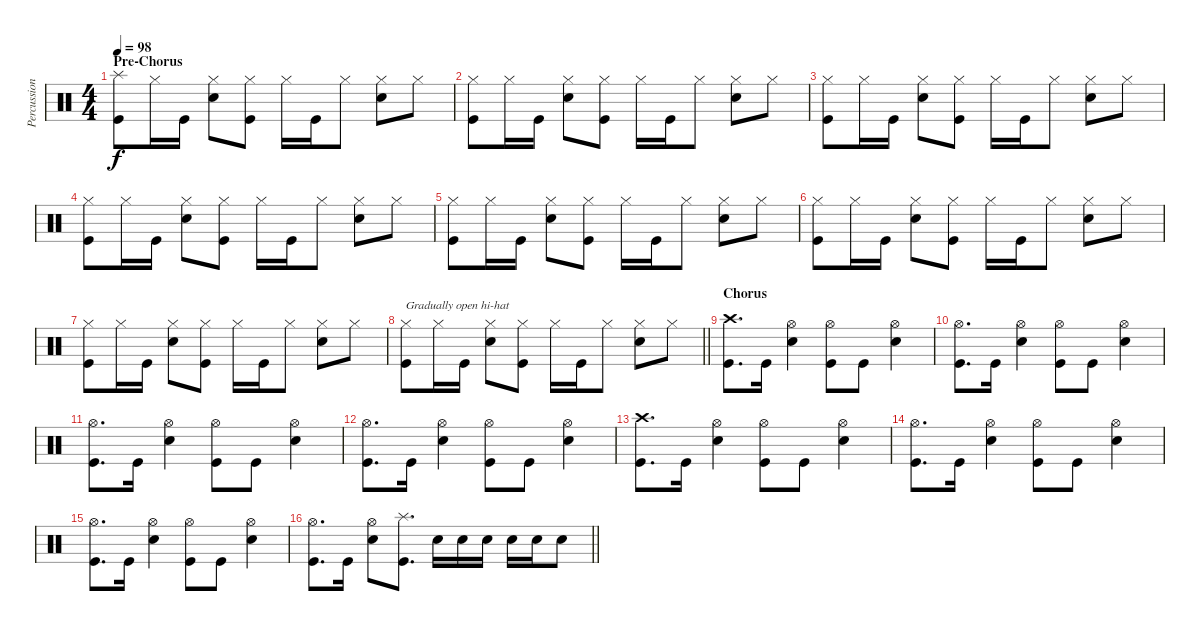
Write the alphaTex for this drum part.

\track ("Percussion" "Percussion") {instrument percussion}
\staff {score}
\articulation defaults
\ts (4 4)
\section ("" "Pre-Chorus")
\tempo 98
\clef neutral
\ks c
("Splash (hit)" "Kick (hit)").8{dy f} "Hi-Hat (closed)".16 "Kick (hit)".16 ("Hi-Hat (closed)" "Electric Snare (hit)").8 ("Hi-Hat (closed)" "Kick (hit)").8 "Hi-Hat (closed)".16 "Kick (hit)".16 "Hi-Hat (closed)".8 ("Hi-Hat (closed)" "Electric Snare (hit)").8 "Hi-Hat (closed)".8 |
("Hi-Hat (closed)" "Kick (hit)").8 "Hi-Hat (closed)".16 "Kick (hit)".16 ("Hi-Hat (closed)" "Electric Snare (hit)").8 ("Hi-Hat (closed)" "Kick (hit)").8 "Hi-Hat (closed)".16 "Kick (hit)".16 "Hi-Hat (closed)".8 ("Hi-Hat (closed)" "Electric Snare (hit)").8 "Hi-Hat (closed)".8 |
("Hi-Hat (closed)" "Kick (hit)").8 "Hi-Hat (closed)".16 "Kick (hit)".16 ("Hi-Hat (closed)" "Electric Snare (hit)").8 ("Hi-Hat (closed)" "Kick (hit)").8 "Hi-Hat (closed)".16 "Kick (hit)".16 "Hi-Hat (closed)".8 ("Hi-Hat (closed)" "Electric Snare (hit)").8 "Hi-Hat (closed)".8 |
("Hi-Hat (closed)" "Kick (hit)").8 "Hi-Hat (closed)".16 "Kick (hit)".16 ("Hi-Hat (closed)" "Electric Snare (hit)").8 ("Hi-Hat (closed)" "Kick (hit)").8 "Hi-Hat (closed)".16 "Kick (hit)".16 "Hi-Hat (closed)".8 ("Hi-Hat (closed)" "Electric Snare (hit)").8 "Hi-Hat (closed)".8 |
("Hi-Hat (closed)" "Kick (hit)").8 "Hi-Hat (closed)".16 "Kick (hit)".16 ("Hi-Hat (closed)" "Electric Snare (hit)").8 ("Hi-Hat (closed)" "Kick (hit)").8 "Hi-Hat (closed)".16 "Kick (hit)".16 "Hi-Hat (closed)".8 ("Hi-Hat (closed)" "Electric Snare (hit)").8 "Hi-Hat (closed)".8 |
("Hi-Hat (closed)" "Kick (hit)").8 "Hi-Hat (closed)".16 "Kick (hit)".16 ("Hi-Hat (closed)" "Electric Snare (hit)").8 ("Hi-Hat (closed)" "Kick (hit)").8 "Hi-Hat (closed)".16 "Kick (hit)".16 "Hi-Hat (closed)".8 ("Hi-Hat (closed)" "Electric Snare (hit)").8 "Hi-Hat (closed)".8 |
("Hi-Hat (closed)" "Kick (hit)").8 "Hi-Hat (closed)".16 "Kick (hit)".16 ("Hi-Hat (closed)" "Electric Snare (hit)").8 ("Hi-Hat (closed)" "Kick (hit)").8 "Hi-Hat (closed)".16 "Kick (hit)".16 "Hi-Hat (closed)".8 ("Hi-Hat (closed)" "Electric Snare (hit)").8 "Hi-Hat (closed)".8 |
\barLineRight lightlight
("Hi-Hat (closed)" "Kick (hit)").8{txt "Gradually open hi-hat"} "Hi-Hat (closed)".16 "Kick (hit)".16 ("Hi-Hat (closed)" "Electric Snare (hit)").8 ("Hi-Hat (closed)" "Kick (hit)").8 "Hi-Hat (closed)".16 "Kick (hit)".16 "Hi-Hat (closed)".8 ("Hi-Hat (closed)" "Electric Snare (hit)").8 "Hi-Hat (closed)".8 |
\section ("" "Chorus")
("Crash high (hit)" "Kick (hit)").8{d} "Kick (hit)".16 ("Hi-Hat (open)" "Electric Snare (hit)").4 ("Hi-Hat (open)" "Kick (hit)").8 "Kick (hit)".8 ("Hi-Hat (open)" "Electric Snare (hit)").4 |
("Hi-Hat (open)" "Kick (hit)").8{d} "Kick (hit)".16 ("Hi-Hat (open)" "Electric Snare (hit)").4 ("Hi-Hat (open)" "Kick (hit)").8 "Kick (hit)".8 ("Hi-Hat (open)" "Electric Snare (hit)").4 |
("Hi-Hat (open)" "Kick (hit)").8{d} "Kick (hit)".16 ("Hi-Hat (open)" "Electric Snare (hit)").4 ("Hi-Hat (open)" "Kick (hit)").8 "Kick (hit)".8 ("Hi-Hat (open)" "Electric Snare (hit)").4 |
("Hi-Hat (open)" "Kick (hit)").8{d} "Kick (hit)".16 ("Hi-Hat (open)" "Electric Snare (hit)").4 ("Hi-Hat (open)" "Kick (hit)").8 "Kick (hit)".8 ("Hi-Hat (open)" "Electric Snare (hit)").4 |
("Crash high (hit)" "Kick (hit)").8{d} "Kick (hit)".16 ("Hi-Hat (open)" "Electric Snare (hit)").4 ("Hi-Hat (open)" "Kick (hit)").8 "Kick (hit)".8 ("Hi-Hat (open)" "Electric Snare (hit)").4 |
("Hi-Hat (open)" "Kick (hit)").8{d} "Kick (hit)".16 ("Hi-Hat (open)" "Electric Snare (hit)").4 ("Hi-Hat (open)" "Kick (hit)").8 "Kick (hit)".8 ("Hi-Hat (open)" "Electric Snare (hit)").4 |
("Hi-Hat (open)" "Kick (hit)").8{d} "Kick (hit)".16 ("Hi-Hat (open)" "Electric Snare (hit)").4 ("Hi-Hat (open)" "Kick (hit)").8 "Kick (hit)".8 ("Hi-Hat (open)" "Electric Snare (hit)").4 |
\barLineRight lightlight
("Hi-Hat (open)" "Kick (hit)").8{d} "Kick (hit)".16 ("Hi-Hat (open)" "Electric Snare (hit)").8 ("Splash (hit)" "Kick (hit)").8{d} "Electric Snare (hit)".16 "Electric Snare (hit)".16 "Electric Snare (hit)".16 "Electric Snare (hit)".16 "Electric Snare (hit)".16 "Electric Snare (hit)".8
